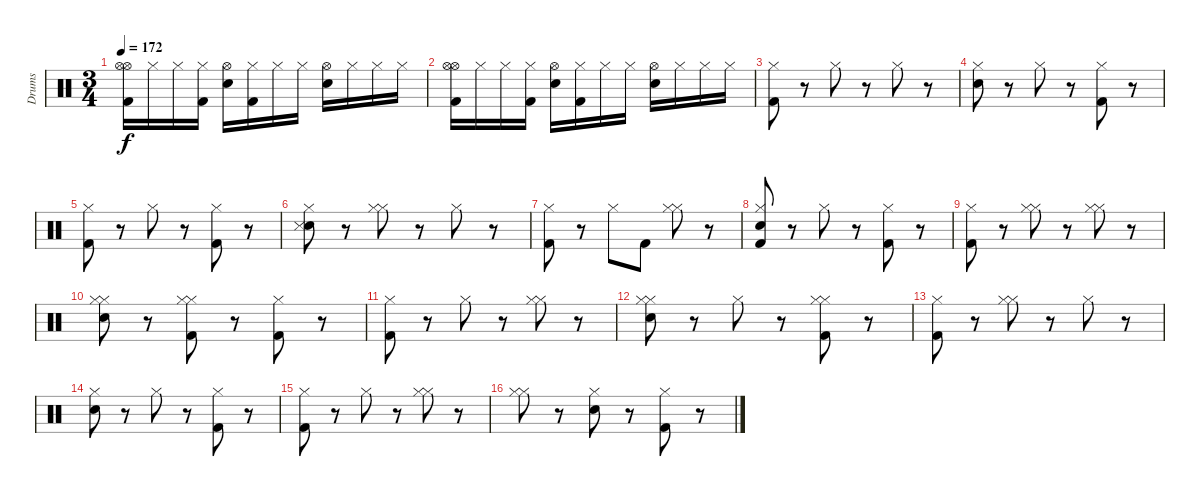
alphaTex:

\track ("Drums" "Drums") {instrument percussion}
\staff {score}
\articulation defaults
\ts (3 4)
\tempo 172
\clef neutral
\ks c
("Kick (hit) 2" "Hi-Hat (open)" "Hi-Hat (open)").16{dy f} "Hi-Hat (closed)".16 "Hi-Hat (closed)".16 ("Hi-Hat (closed)" "Kick (hit) 2").16 ("Snare (hit) 2" "Hi-Hat (open)").16 ("Kick (hit) 2" "Hi-Hat (closed)").16 "Hi-Hat (closed)".16 "Hi-Hat (closed)".16 ("Hi-Hat (open)" "Snare (hit) 2").16 "Hi-Hat (closed)".16 "Hi-Hat (closed)".16 "Hi-Hat (closed)".16 |
("Kick (hit) 2" "Hi-Hat (open)" "Hi-Hat (open)").16 "Hi-Hat (closed)".16 "Hi-Hat (closed)".16 ("Hi-Hat (closed)" "Kick (hit) 2").16 ("Snare (hit) 2" "Hi-Hat (open)").16 ("Kick (hit) 2" "Hi-Hat (closed)").16 "Hi-Hat (closed)".16 "Hi-Hat (closed)".16 ("Hi-Hat (open)" "Snare (hit) 2").16 "Hi-Hat (closed)".16 "Hi-Hat (closed)".16 "Hi-Hat (closed)".16 |
("Kick (hit) 2" "Hi-Hat (closed)").8 r.8 "Hi-Hat (closed)".8 r.8 "Hi-Hat (closed)".8 r.8 |
("Snare (hit) 2" "Hi-Hat (closed)").8 r.8 "Hi-Hat (closed)".8 r.8 ("Hi-Hat (closed)" "Kick (hit) 2").8 r.8 |
("Hi-Hat (closed)" "Kick (hit) 2").8 r.8 "Hi-Hat (closed)".8 r.8 ("Hi-Hat (closed)" "Kick (hit) 2").8 r.8 |
("Snare (hit) 2" "Hi-Hat (closed)" "Snare (side stick) 3").8 r.8 ("Hi-Hat (closed)" "Hi-Hat (closed)").8 r.8 "Hi-Hat (closed)".8 r.8 |
("Hi-Hat (closed)" "Kick (hit) 2").8 r.8 "Hi-Hat (closed)".8 "Kick (hit) 2".8 ("Hi-Hat (closed)" "Hi-Hat (closed)").8 r.8 |
("Snare (hit) 2" "Kick (hit) 2" "Hi-Hat (closed)").8 r.8 "Hi-Hat (closed)".8 r.8 ("Kick (hit) 2" "Hi-Hat (closed)").8 r.8 |
("Hi-Hat (closed)" "Kick (hit) 2").8 r.8 ("Hi-Hat (closed)" "Hi-Hat (closed)").8 r.8 ("Hi-Hat (closed)" "Hi-Hat (closed)").8 r.8 |
("Snare (hit) 2" "Hi-Hat (closed)" "Hi-Hat (closed)").8 r.8 ("Hi-Hat (closed)" "Kick (hit) 2" "Hi-Hat (closed)").8 r.8 ("Hi-Hat (closed)" "Kick (hit) 2").8 r.8 |
("Hi-Hat (closed)" "Kick (hit) 2").8 r.8 "Hi-Hat (closed)".8 r.8 ("Hi-Hat (closed)" "Hi-Hat (closed)").8 r.8 |
("Snare (hit) 2" "Hi-Hat (closed)" "Hi-Hat (closed)").8 r.8 "Hi-Hat (closed)".8 r.8 ("Kick (hit) 2" "Hi-Hat (closed)" "Hi-Hat (closed)").8 r.8 |
("Hi-Hat (closed)" "Kick (hit) 2").8 r.8 ("Hi-Hat (closed)" "Hi-Hat (closed)").8 r.8 "Hi-Hat (closed)".8 r.8 |
("Hi-Hat (closed)" "Snare (hit) 2").8 r.8 "Hi-Hat (closed)".8 r.8 ("Hi-Hat (closed)" "Kick (hit) 2").8 r.8 |
("Hi-Hat (closed)" "Kick (hit) 2").8 r.8 "Hi-Hat (closed)".8 r.8 ("Hi-Hat (closed)" "Hi-Hat (closed)").8 r.8 |
("Hi-Hat (closed)" "Hi-Hat (closed)").8 r.8 ("Snare (hit) 2" "Hi-Hat (closed)").8 r.8 ("Hi-Hat (closed)" "Kick (hit) 2").8 r.8
